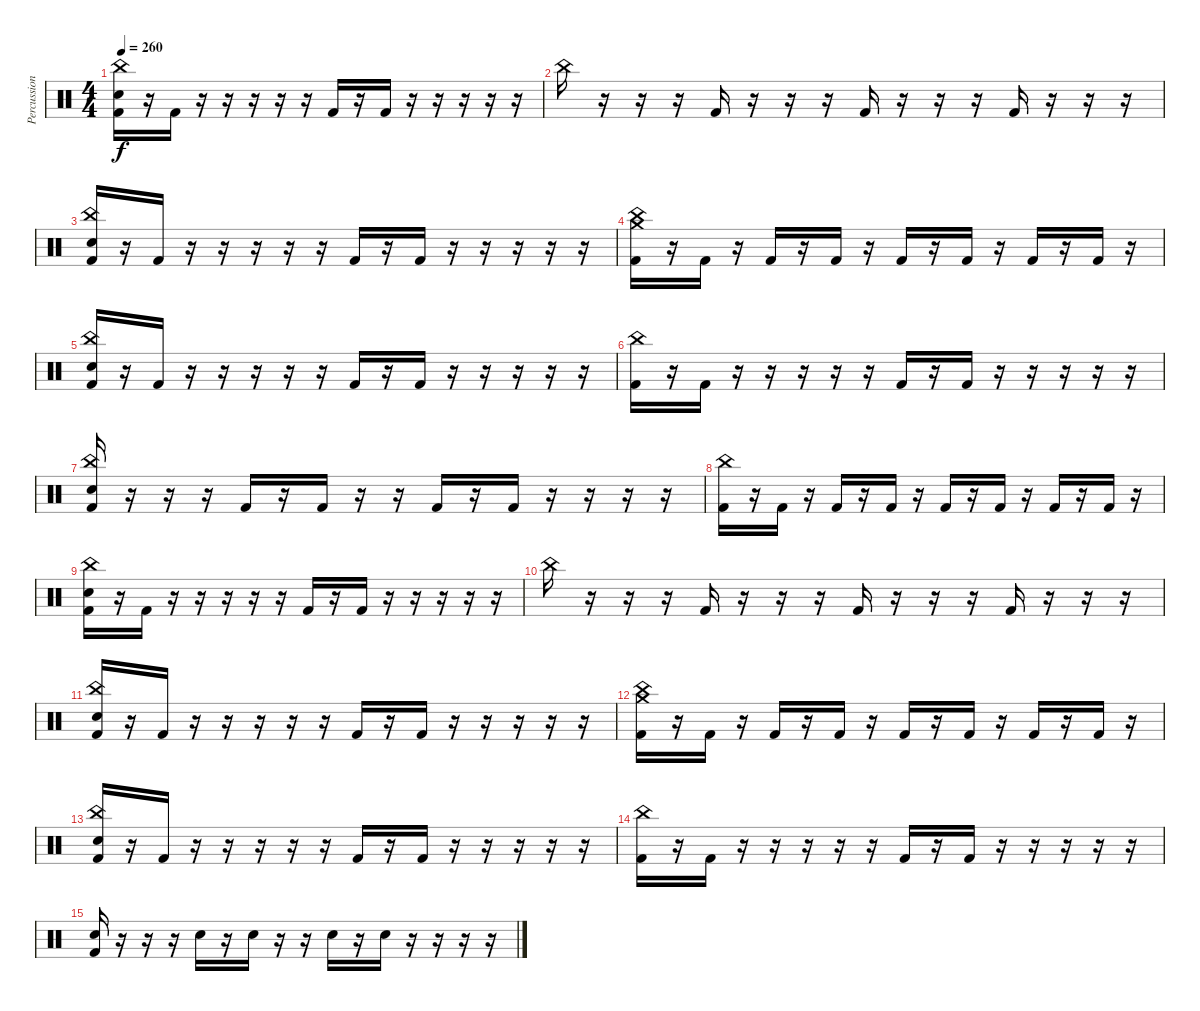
\track ("Percussion" "Percussion") {instrument percussion}
\staff {score}
\articulation defaults
\ts (4 4)
\tempo 260
\clef neutral
\ks c
("Kick (hit) 2" "Electric Snare (hit)" "China (hit)").16{dy f} r.16 "Kick (hit) 2".16 r.16 r.16 r.16 r.16 r.16 "Kick (hit) 2".16 r.16 "Kick (hit) 2".16 r.16 r.16 r.16 r.16 r.16 |
"China (hit)".16 r.16 r.16 r.16 "Kick (hit) 2".16 r.16 r.16 r.16 "Kick (hit) 2".16 r.16 r.16 r.16 "Kick (hit) 2".16 r.16 r.16 r.16 |
("Kick (hit) 2" "Snare (hit) 2" "China (hit)").16 r.16 "Kick (hit) 2".16 r.16 r.16 r.16 r.16 r.16 "Kick (hit) 2".16 r.16 "Kick (hit) 2".16 r.16 r.16 r.16 r.16 r.16 |
("Kick (hit) 2" "Crash medium (hit)" "China (hit)").16 r.16 "Kick (hit) 2".16 r.16 "Kick (hit) 2".16 r.16 "Kick (hit) 2".16 r.16 "Kick (hit) 2".16 r.16 "Kick (hit) 2".16 r.16 "Kick (hit) 2".16 r.16 "Kick (hit) 2".16 r.16 |
("Kick (hit) 2" "Snare (hit) 2" "China (hit)").16 r.16 "Kick (hit) 2".16 r.16 r.16 r.16 r.16 r.16 "Kick (hit) 2".16 r.16 "Kick (hit) 2".16 r.16 r.16 r.16 r.16 r.16 |
("Kick (hit) 2" "China (hit)").16 r.16 "Kick (hit) 2".16 r.16 r.16 r.16 r.16 r.16 "Kick (hit) 2".16 r.16 "Kick (hit) 2".16 r.16 r.16 r.16 r.16 r.16 |
("Kick (hit) 2" "Snare (hit) 2" "China (hit)").16 r.16 r.16 r.16 "Kick (hit) 2".16 r.16 "Kick (hit) 2".16 r.16 r.16 "Kick (hit) 2".16 r.16 "Kick (hit) 2".16 r.16 r.16 r.16 r.16 |
("Kick (hit) 2" "China (hit)").16 r.16 "Kick (hit) 2".16 r.16 "Kick (hit) 2".16 r.16 "Kick (hit) 2".16 r.16 "Kick (hit) 2".16 r.16 "Kick (hit) 2".16 r.16 "Kick (hit) 2".16 r.16 "Kick (hit) 2".16 r.16 |
("Kick (hit) 2" "Electric Snare (hit)" "China (hit)").16 r.16 "Kick (hit) 2".16 r.16 r.16 r.16 r.16 r.16 "Kick (hit) 2".16 r.16 "Kick (hit) 2".16 r.16 r.16 r.16 r.16 r.16 |
"China (hit)".16 r.16 r.16 r.16 "Kick (hit) 2".16 r.16 r.16 r.16 "Kick (hit) 2".16 r.16 r.16 r.16 "Kick (hit) 2".16 r.16 r.16 r.16 |
("Kick (hit) 2" "Snare (hit) 2" "China (hit)").16 r.16 "Kick (hit) 2".16 r.16 r.16 r.16 r.16 r.16 "Kick (hit) 2".16 r.16 "Kick (hit) 2".16 r.16 r.16 r.16 r.16 r.16 |
("Kick (hit) 2" "Crash medium (hit)" "China (hit)").16 r.16 "Kick (hit) 2".16 r.16 "Kick (hit) 2".16 r.16 "Kick (hit) 2".16 r.16 "Kick (hit) 2".16 r.16 "Kick (hit) 2".16 r.16 "Kick (hit) 2".16 r.16 "Kick (hit) 2".16 r.16 |
("Kick (hit) 2" "Snare (hit) 2" "China (hit)").16 r.16 "Kick (hit) 2".16 r.16 r.16 r.16 r.16 r.16 "Kick (hit) 2".16 r.16 "Kick (hit) 2".16 r.16 r.16 r.16 r.16 r.16 |
("Kick (hit) 2" "China (hit)").16 r.16 "Kick (hit) 2".16 r.16 r.16 r.16 r.16 r.16 "Kick (hit) 2".16 r.16 "Kick (hit) 2".16 r.16 r.16 r.16 r.16 r.16 |
("Kick (hit) 2" "Snare (hit) 2").16 r.16 r.16 r.16 "Snare (hit) 2".16 r.16 "Snare (hit) 2".16 r.16 r.16 "Snare (hit) 2".16 r.16 "Snare (hit) 2".16 r.16 r.16 r.16 r.16
